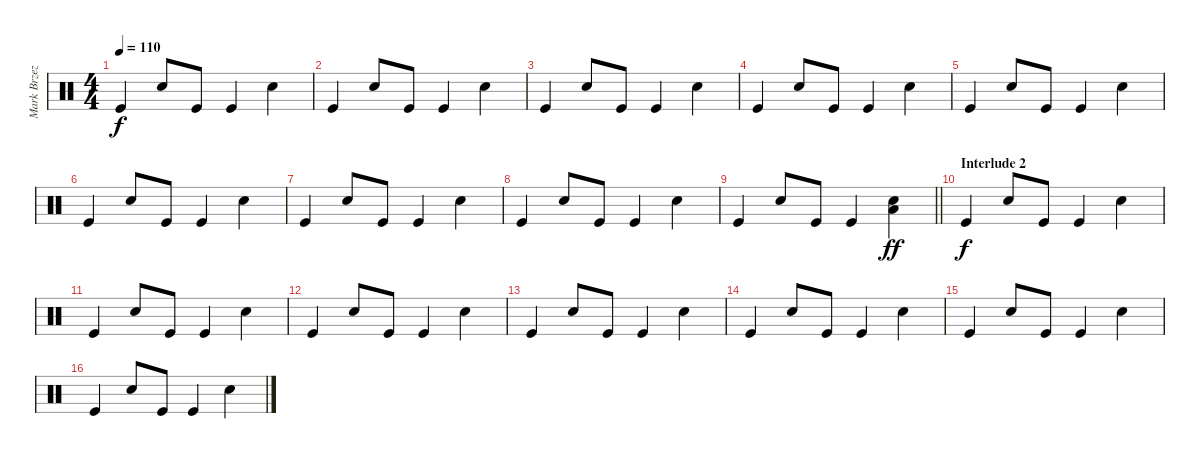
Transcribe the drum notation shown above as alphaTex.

\track ("Mark Brzezicki - Toms, Snare & Bass Drum" "Mark Brzez") {instrument percussion}
\staff {score}
\articulation defaults
\ts (4 4)
\tempo 110
\clef neutral
\ks c "Kick (hit)".4{dy f} "Electric Snare (hit)".8 "Kick (hit)".8 "Kick (hit)".4 "Electric Snare (hit)".4
|
"Kick (hit)".4 "Electric Snare (hit)".8 "Kick (hit)".8 "Kick (hit)".4 "Electric Snare (hit)".4 |
"Kick (hit)".4 "Electric Snare (hit)".8 "Kick (hit)".8 "Kick (hit)".4 "Electric Snare (hit)".4 |
"Kick (hit)".4 "Electric Snare (hit)".8 "Kick (hit)".8 "Kick (hit)".4 "Electric Snare (hit)".4 |
"Kick (hit)".4 "Electric Snare (hit)".8 "Kick (hit)".8 "Kick (hit)".4 "Electric Snare (hit)".4 |
"Kick (hit)".4 "Electric Snare (hit)".8 "Kick (hit)".8 "Kick (hit)".4 "Electric Snare (hit)".4 |
"Kick (hit)".4 "Electric Snare (hit)".8 "Kick (hit)".8 "Kick (hit)".4 "Electric Snare (hit)".4 |
"Kick (hit)".4 "Electric Snare (hit)".8 "Kick (hit)".8 "Kick (hit)".4 "Electric Snare (hit)".4 |
\barLineRight lightlight "Kick (hit)".4 "Electric Snare (hit)".8 "Kick (hit)".8 "Kick (hit)".4
("Low Tom (hit)" "Electric Snare (hit)").4{dy ff} |
\section ("" "Interlude 2")
"Kick (hit)".4{dy f} "Electric Snare (hit)".8 "Kick (hit)".8 "Kick (hit)".4 "Electric Snare (hit)".4 |
"Kick (hit)".4 "Electric Snare (hit)".8 "Kick (hit)".8 "Kick (hit)".4 "Electric Snare (hit)".4 |
"Kick (hit)".4 "Electric Snare (hit)".8 "Kick (hit)".8 "Kick (hit)".4 "Electric Snare (hit)".4 |
"Kick (hit)".4 "Electric Snare (hit)".8 "Kick (hit)".8 "Kick (hit)".4 "Electric Snare (hit)".4 |
"Kick (hit)".4 "Electric Snare (hit)".8 "Kick (hit)".8 "Kick (hit)".4 "Electric Snare (hit)".4 |
"Kick (hit)".4 "Electric Snare (hit)".8 "Kick (hit)".8 "Kick (hit)".4 "Electric Snare (hit)".4 |
"Kick (hit)".4 "Electric Snare (hit)".8 "Kick (hit)".8 "Kick (hit)".4 "Electric Snare (hit)".4
